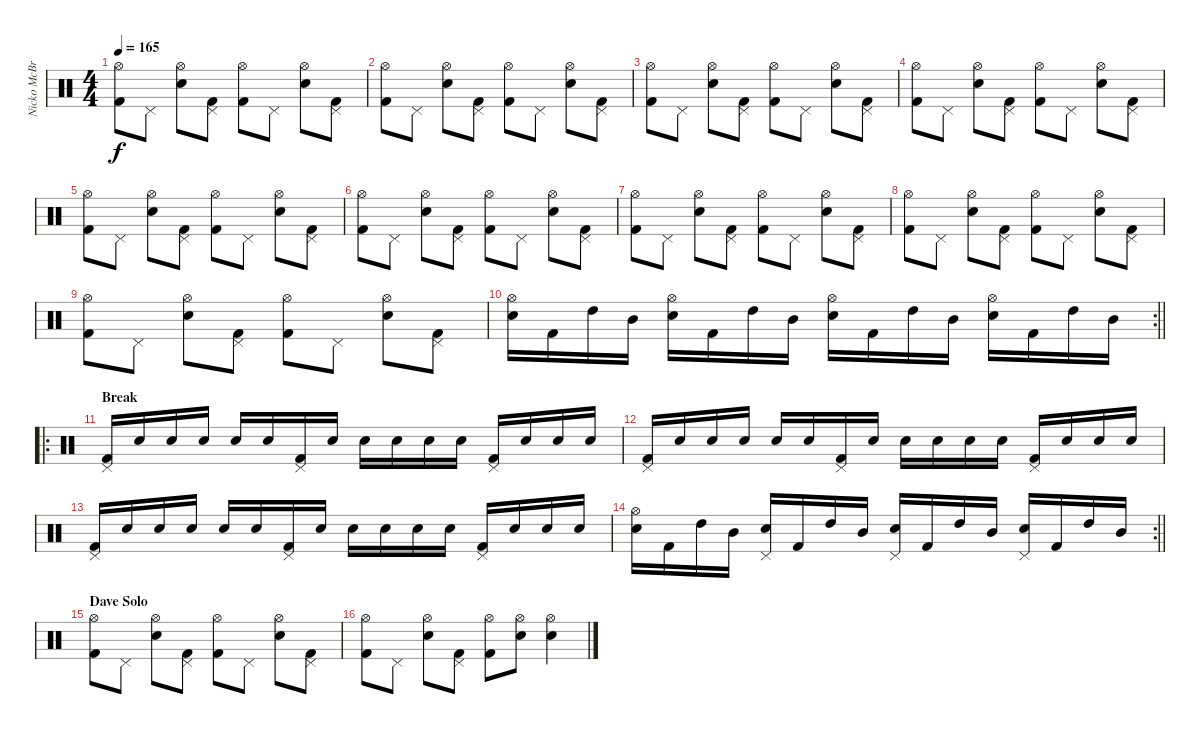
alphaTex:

\track ("Nicko McBrain" "Nicko McBr") {instrument percussion}
\staff {score}
\articulation defaults
\ts (4 4)
\tempo 165
\clef neutral
\ks c
("Kick (hit) 2" "Hi-Hat (open)").8{dy f} "Pedal Hi-Hat (hit)".8 ("Snare (hit) 2" "Hi-Hat (open)").8 ("Kick (hit) 2" "Pedal Hi-Hat (hit)").8 ("Kick (hit) 2" "Hi-Hat (open)").8 "Pedal Hi-Hat (hit)".8 ("Snare (hit) 2" "Hi-Hat (open)").8 ("Kick (hit) 2" "Pedal Hi-Hat (hit)").8 |
("Kick (hit) 2" "Hi-Hat (open)").8 "Pedal Hi-Hat (hit)".8 ("Snare (hit) 2" "Hi-Hat (open)").8 ("Kick (hit) 2" "Pedal Hi-Hat (hit)").8 ("Kick (hit) 2" "Hi-Hat (open)").8 "Pedal Hi-Hat (hit)".8 ("Snare (hit) 2" "Hi-Hat (open)").8 ("Kick (hit) 2" "Pedal Hi-Hat (hit)").8 |
("Kick (hit) 2" "Hi-Hat (open)").8 "Pedal Hi-Hat (hit)".8 ("Snare (hit) 2" "Hi-Hat (open)").8 ("Kick (hit) 2" "Pedal Hi-Hat (hit)").8 ("Kick (hit) 2" "Hi-Hat (open)").8 "Pedal Hi-Hat (hit)".8 ("Snare (hit) 2" "Hi-Hat (open)").8 ("Kick (hit) 2" "Pedal Hi-Hat (hit)").8 |
("Kick (hit) 2" "Hi-Hat (open)").8 "Pedal Hi-Hat (hit)".8 ("Snare (hit) 2" "Hi-Hat (open)").8 ("Kick (hit) 2" "Pedal Hi-Hat (hit)").8 ("Kick (hit) 2" "Hi-Hat (open)").8 "Pedal Hi-Hat (hit)".8 ("Snare (hit) 2" "Hi-Hat (open)").8 ("Kick (hit) 2" "Pedal Hi-Hat (hit)").8 |
("Kick (hit) 2" "Hi-Hat (open)").8 "Pedal Hi-Hat (hit)".8 ("Snare (hit) 2" "Hi-Hat (open)").8 ("Kick (hit) 2" "Pedal Hi-Hat (hit)").8 ("Kick (hit) 2" "Hi-Hat (open)").8 "Pedal Hi-Hat (hit)".8 ("Snare (hit) 2" "Hi-Hat (open)").8 ("Kick (hit) 2" "Pedal Hi-Hat (hit)").8 |
("Kick (hit) 2" "Hi-Hat (open)").8 "Pedal Hi-Hat (hit)".8 ("Snare (hit) 2" "Hi-Hat (open)").8 ("Kick (hit) 2" "Pedal Hi-Hat (hit)").8 ("Kick (hit) 2" "Hi-Hat (open)").8 "Pedal Hi-Hat (hit)".8 ("Snare (hit) 2" "Hi-Hat (open)").8 ("Kick (hit) 2" "Pedal Hi-Hat (hit)").8 |
("Kick (hit) 2" "Hi-Hat (open)").8 "Pedal Hi-Hat (hit)".8 ("Snare (hit) 2" "Hi-Hat (open)").8 ("Kick (hit) 2" "Pedal Hi-Hat (hit)").8 ("Kick (hit) 2" "Hi-Hat (open)").8 "Pedal Hi-Hat (hit)".8 ("Snare (hit) 2" "Hi-Hat (open)").8 ("Kick (hit) 2" "Pedal Hi-Hat (hit)").8 |
("Kick (hit) 2" "Hi-Hat (open)").8 "Pedal Hi-Hat (hit)".8 ("Snare (hit) 2" "Hi-Hat (open)").8 ("Kick (hit) 2" "Pedal Hi-Hat (hit)").8 ("Kick (hit) 2" "Hi-Hat (open)").8 "Pedal Hi-Hat (hit)".8 ("Snare (hit) 2" "Hi-Hat (open)").8 ("Kick (hit) 2" "Pedal Hi-Hat (hit)").8 |
("Kick (hit) 2" "Hi-Hat (open)").8 "Pedal Hi-Hat (hit)".8 ("Snare (hit) 2" "Hi-Hat (open)").8 ("Kick (hit) 2" "Pedal Hi-Hat (hit)").8 ("Kick (hit) 2" "Hi-Hat (open)").8 "Pedal Hi-Hat (hit)".8 ("Snare (hit) 2" "Hi-Hat (open)").8 ("Kick (hit) 2" "Pedal Hi-Hat (hit)").8 |
\rc 2
\barLineRight lightlight
("Snare (hit) 2" "Hi-Hat (open)").16 "Kick (hit) 2".16 "High Tom (hit)".16 "Mid Tom (hit)".16 ("Snare (hit) 2" "Hi-Hat (open)").16 "Kick (hit) 2".16 "High Tom (hit)".16 "Mid Tom (hit)".16 ("Snare (hit) 2" "Hi-Hat (open)").16 "Kick (hit) 2".16 "High Tom (hit)".16 "Mid Tom (hit)".16 ("Snare (hit) 2" "Hi-Hat (open)").16 "Kick (hit) 2".16 "High Tom (hit)".16 "Mid Tom (hit)".16 |
\ro
\section ("" "Break")
("Kick (hit) 2" "Pedal Hi-Hat (hit)").16 "Snare (hit) 2".16 "Snare (hit) 2".16 "Snare (hit) 2".16 "Snare (hit) 2".16 "Snare (hit) 2".16 ("Kick (hit) 2" "Pedal Hi-Hat (hit)").16 "Snare (hit) 2".16 "Snare (hit) 2".16 "Snare (hit) 2".16 "Snare (hit) 2".16 "Snare (hit) 2".16 ("Kick (hit) 2" "Pedal Hi-Hat (hit)").16 "Snare (hit) 2".16 "Snare (hit) 2".16 "Snare (hit) 2".16 |
("Kick (hit) 2" "Pedal Hi-Hat (hit)").16 "Snare (hit) 2".16 "Snare (hit) 2".16 "Snare (hit) 2".16 "Snare (hit) 2".16 "Snare (hit) 2".16 ("Kick (hit) 2" "Pedal Hi-Hat (hit)").16 "Snare (hit) 2".16 "Snare (hit) 2".16 "Snare (hit) 2".16 "Snare (hit) 2".16 "Snare (hit) 2".16 ("Kick (hit) 2" "Pedal Hi-Hat (hit)").16 "Snare (hit) 2".16 "Snare (hit) 2".16 "Snare (hit) 2".16 |
("Kick (hit) 2" "Pedal Hi-Hat (hit)").16 "Snare (hit) 2".16 "Snare (hit) 2".16 "Snare (hit) 2".16 "Snare (hit) 2".16 "Snare (hit) 2".16 ("Kick (hit) 2" "Pedal Hi-Hat (hit)").16 "Snare (hit) 2".16 "Snare (hit) 2".16 "Snare (hit) 2".16 "Snare (hit) 2".16 "Snare (hit) 2".16 ("Kick (hit) 2" "Pedal Hi-Hat (hit)").16 "Snare (hit) 2".16 "Snare (hit) 2".16 "Snare (hit) 2".16 |
\rc 2
\barLineRight lightlight
("Snare (hit) 2" "Hi-Hat (open)").16 "Kick (hit) 2".16 "High Tom (hit)".16 "Mid Tom (hit)".16 ("Snare (hit) 2" "Pedal Hi-Hat (hit)").16 "Kick (hit) 2".16 "High Tom (hit)".16 "Mid Tom (hit)".16 ("Snare (hit) 2" "Pedal Hi-Hat (hit)").16 "Kick (hit) 2".16 "High Tom (hit)".16 "Mid Tom (hit)".16 ("Snare (hit) 2" "Pedal Hi-Hat (hit)").16 "Kick (hit) 2".16 "High Tom (hit)".16 "Mid Tom (hit)".16 |
\section ("" "Dave Solo")
("Kick (hit) 2" "Hi-Hat (open)").8 "Pedal Hi-Hat (hit)".8 ("Snare (hit) 2" "Hi-Hat (open)").8 ("Kick (hit) 2" "Pedal Hi-Hat (hit)").8 ("Kick (hit) 2" "Hi-Hat (open)").8 "Pedal Hi-Hat (hit)".8 ("Snare (hit) 2" "Hi-Hat (open)").8 ("Kick (hit) 2" "Pedal Hi-Hat (hit)").8 |
("Kick (hit) 2" "Hi-Hat (open)").8 "Pedal Hi-Hat (hit)".8 ("Snare (hit) 2" "Hi-Hat (open)").8 ("Kick (hit) 2" "Pedal Hi-Hat (hit)").8 ("Kick (hit) 2" "Hi-Hat (open)").8 ("Snare (hit) 2" "Hi-Hat (open)").8 ("Snare (hit) 2" "Hi-Hat (open)").4
